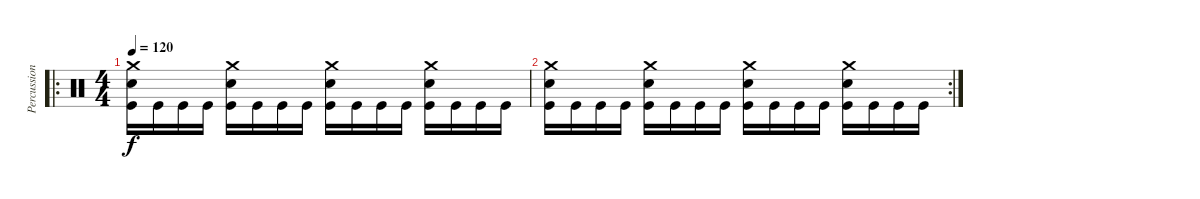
\track ("Percussion" "Percussion") {instrument percussion}
\staff {score}
\articulation defaults
\ro
\ts (4 4)
\tempo 120
\clef neutral
\ks c
("Crash medium (hit)" "Snare (hit) 2" "Kick (hit)").16{dy f} "Kick (hit)".16 "Kick (hit)".16 "Kick (hit)".16 ("Crash medium (hit)" "Snare (hit) 2" "Kick (hit)").16 "Kick (hit)".16 "Kick (hit)".16 "Kick (hit)".16 ("Crash medium (hit)" "Snare (hit) 2" "Kick (hit)").16 "Kick (hit)".16 "Kick (hit)".16 "Kick (hit)".16 ("Crash medium (hit)" "Snare (hit) 2" "Kick (hit)").16 "Kick (hit)".16 "Kick (hit)".16 "Kick (hit)".16 |
\rc 2
("Crash medium (hit)" "Snare (hit) 2" "Kick (hit)").16 "Kick (hit)".16 "Kick (hit)".16 "Kick (hit)".16 ("Crash medium (hit)" "Snare (hit) 2" "Kick (hit)").16 "Kick (hit)".16 "Kick (hit)".16 "Kick (hit)".16 ("Crash medium (hit)" "Snare (hit) 2" "Kick (hit)").16 "Kick (hit)".16 "Kick (hit)".16 "Kick (hit)".16 ("Crash medium (hit)" "Snare (hit) 2" "Kick (hit)").16 "Kick (hit)".16 "Kick (hit)".16 "Kick (hit)".16
